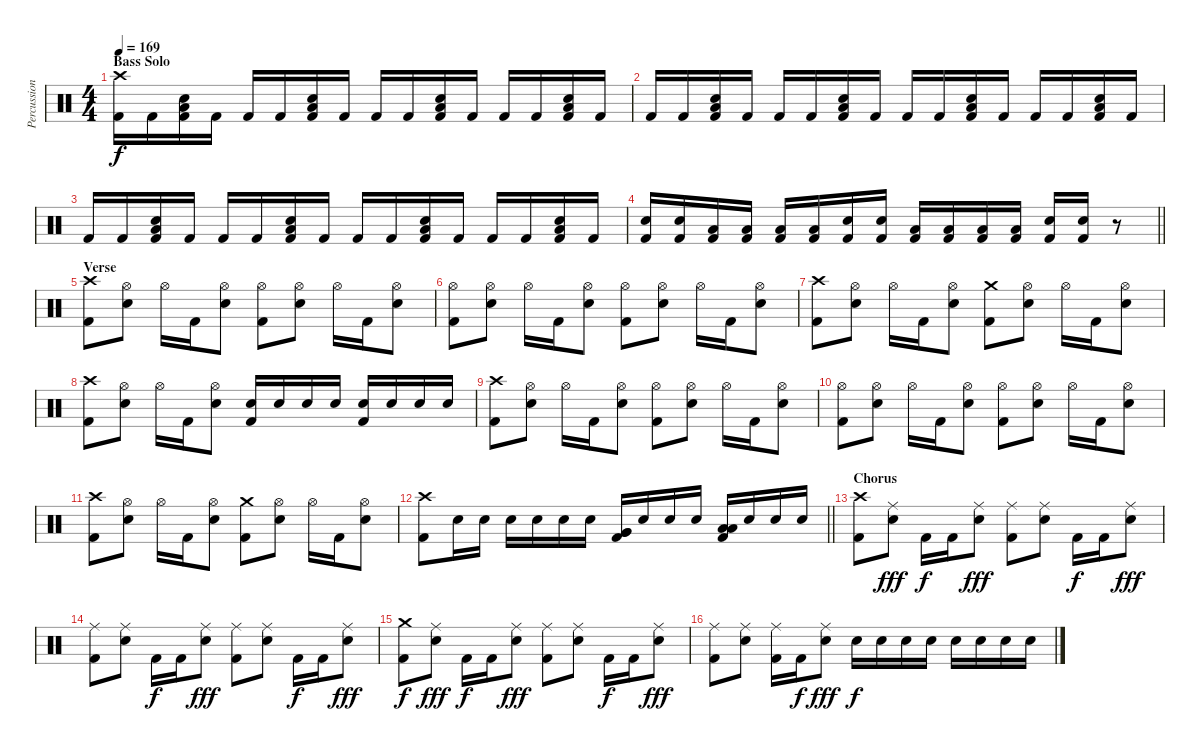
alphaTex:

\track ("Percussion" "Percussion") {instrument percussion}
\staff {score}
\articulation defaults
\ts (4 4)
\section ("" "Bass Solo")
\tempo 169
\clef neutral
\ks c
("Crash high (hit)" "Kick (hit) 2").16{dy f} "Kick (hit) 2".16 ("Low Floor Tom (hit)" "Electric Snare (hit)" "Kick (hit) 2").16 "Kick (hit) 2".16 "Kick (hit) 2".16 "Kick (hit) 2".16 ("Low Floor Tom (hit)" "Electric Snare (hit)" "Kick (hit) 2").16 "Kick (hit) 2".16 "Kick (hit) 2".16 "Kick (hit) 2".16 ("Low Floor Tom (hit)" "Electric Snare (hit)" "Kick (hit) 2").16 "Kick (hit) 2".16 "Kick (hit) 2".16 "Kick (hit) 2".16 ("Low Floor Tom (hit)" "Electric Snare (hit)" "Kick (hit) 2").16 "Kick (hit) 2".16 |
"Kick (hit) 2".16 "Kick (hit) 2".16 ("Low Floor Tom (hit)" "Electric Snare (hit)" "Kick (hit) 2").16 "Kick (hit) 2".16 "Kick (hit) 2".16 "Kick (hit) 2".16 ("Low Floor Tom (hit)" "Electric Snare (hit)" "Kick (hit) 2").16 "Kick (hit) 2".16 "Kick (hit) 2".16 "Kick (hit) 2".16 ("Low Floor Tom (hit)" "Electric Snare (hit)" "Kick (hit) 2").16 "Kick (hit) 2".16 "Kick (hit) 2".16 "Kick (hit) 2".16 ("Low Floor Tom (hit)" "Electric Snare (hit)" "Kick (hit) 2").16 "Kick (hit) 2".16 |
"Kick (hit) 2".16 "Kick (hit) 2".16 ("Low Floor Tom (hit)" "Electric Snare (hit)" "Kick (hit) 2").16 "Kick (hit) 2".16 "Kick (hit) 2".16 "Kick (hit) 2".16 ("Low Floor Tom (hit)" "Electric Snare (hit)" "Kick (hit) 2").16 "Kick (hit) 2".16 "Kick (hit) 2".16 "Kick (hit) 2".16 ("Low Floor Tom (hit)" "Electric Snare (hit)" "Kick (hit) 2").16 "Kick (hit) 2".16 "Kick (hit) 2".16 "Kick (hit) 2".16 ("Low Floor Tom (hit)" "Electric Snare (hit)" "Kick (hit) 2").16 "Kick (hit) 2".16 |
\barLineRight lightlight
("Electric Snare (hit)" "Kick (hit) 2").16 ("Electric Snare (hit)" "Kick (hit) 2").16 ("Low Tom (hit)" "Kick (hit) 2").16 ("Low Tom (hit)" "Kick (hit) 2").16 ("Low Floor Tom (hit)" "Kick (hit) 2").16 ("Low Floor Tom (hit)" "Kick (hit) 2").16 ("Electric Snare (hit)" "Kick (hit) 2").16 ("Electric Snare (hit)" "Kick (hit) 2").16 ("Low Tom (hit)" "Kick (hit) 2").16 ("Low Tom (hit)" "Kick (hit) 2").16 ("Low Floor Tom (hit)" "Kick (hit) 2").16 ("Low Floor Tom (hit)" "Kick (hit) 2").16 ("Electric Snare (hit)" "Kick (hit) 2").16 ("Electric Snare (hit)" "Kick (hit) 2").16 r.8 |
\section ("" "Verse")
("Crash high (hit)" "Kick (hit) 2").8 ("Hi-Hat (open)" "Electric Snare (hit)").8 "Hi-Hat (open)".16 "Kick (hit) 2".16 ("Hi-Hat (open)" "Electric Snare (hit)").8 ("Hi-Hat (open)" "Kick (hit) 2").8 ("Hi-Hat (open)" "Electric Snare (hit)").8 "Hi-Hat (open)".16 "Kick (hit) 2".16 ("Hi-Hat (open)" "Electric Snare (hit)").8 |
("Hi-Hat (open)" "Kick (hit) 2").8 ("Hi-Hat (open)" "Electric Snare (hit)").8 "Hi-Hat (open)".16 "Kick (hit) 2".16 ("Hi-Hat (open)" "Electric Snare (hit)").8 ("Hi-Hat (open)" "Kick (hit) 2").8 ("Hi-Hat (open)" "Electric Snare (hit)").8 "Hi-Hat (open)".16 "Kick (hit) 2".16 ("Hi-Hat (open)" "Electric Snare (hit)").8 |
("Crash high (hit)" "Kick (hit) 2").8 ("Hi-Hat (open)" "Electric Snare (hit)").8 "Hi-Hat (open)".16 "Kick (hit) 2".16 ("Hi-Hat (open)" "Electric Snare (hit)").8 ("Crash medium (hit)" "Kick (hit) 2").8 ("Hi-Hat (open)" "Electric Snare (hit)").8 "Hi-Hat (open)".16 "Kick (hit) 2".16 ("Hi-Hat (open)" "Electric Snare (hit)").8 |
("Crash high (hit)" "Kick (hit) 2").8 ("Hi-Hat (open)" "Electric Snare (hit)").8 "Hi-Hat (open)".16 "Kick (hit) 2".16 ("Hi-Hat (open)" "Electric Snare (hit)").8 ("Electric Snare (hit)" "Kick (hit) 2").16 "Electric Snare (hit)".16 "Electric Snare (hit)".16 "Electric Snare (hit)".16 ("Electric Snare (hit)" "Kick (hit) 2").16 "Electric Snare (hit)".16 "Electric Snare (hit)".16 "Electric Snare (hit)".16 |
("Crash high (hit)" "Kick (hit) 2").8 ("Hi-Hat (open)" "Electric Snare (hit)").8 "Hi-Hat (open)".16 "Kick (hit) 2".16 ("Hi-Hat (open)" "Electric Snare (hit)").8 ("Hi-Hat (open)" "Kick (hit) 2").8 ("Hi-Hat (open)" "Electric Snare (hit)").8 "Hi-Hat (open)".16 "Kick (hit) 2".16 ("Hi-Hat (open)" "Electric Snare (hit)").8 |
("Hi-Hat (open)" "Kick (hit) 2").8 ("Hi-Hat (open)" "Electric Snare (hit)").8 "Hi-Hat (open)".16 "Kick (hit) 2".16 ("Hi-Hat (open)" "Electric Snare (hit)").8 ("Hi-Hat (open)" "Kick (hit) 2").8 ("Hi-Hat (open)" "Electric Snare (hit)").8 "Hi-Hat (open)".16 "Kick (hit) 2".16 ("Hi-Hat (open)" "Electric Snare (hit)").8 |
("Crash high (hit)" "Kick (hit) 2").8 ("Hi-Hat (open)" "Electric Snare (hit)").8 "Hi-Hat (open)".16 "Kick (hit) 2".16 ("Hi-Hat (open)" "Electric Snare (hit)").8 ("Crash medium (hit)" "Kick (hit) 2").8 ("Hi-Hat (open)" "Electric Snare (hit)").8 "Hi-Hat (open)".16 "Kick (hit) 2".16 ("Hi-Hat (open)" "Electric Snare (hit)").8 |
\barLineRight lightlight
("Crash high (hit)" "Kick (hit) 2").8 "Electric Snare (hit)".16 "Electric Snare (hit)".16 "Electric Snare (hit)".16 "Electric Snare (hit)".16 "Electric Snare (hit)".16 "Electric Snare (hit)".16 ("Very Low Tom (hit)" "Very Low Tom (hit)" "Kick (hit) 2").16 "Electric Snare (hit)".16 "Electric Snare (hit)".16 "Electric Snare (hit)".16 ("Low Tom (hit)" "Low Tom (hit)" "Kick (hit) 2").16 "Electric Snare (hit)".16 "Electric Snare (hit)".16 "Electric Snare (hit)".16 |
\section ("" "Chorus")
("Crash high (hit)" "Kick (hit) 2").8 ("Ride (middle)" "Electric Snare (hit)").8{dy fff} "Kick (hit) 2".16{dy f} "Kick (hit) 2".16 ("Ride (middle)" "Electric Snare (hit)").8{dy fff} ("Ride (middle)" "Kick (hit) 2").8 ("Ride (middle)" "Electric Snare (hit)").8 "Kick (hit) 2".16{dy f} "Kick (hit) 2".16 ("Ride (middle)" "Electric Snare (hit)").8{dy fff} |
("Ride (middle)" "Kick (hit) 2").8 ("Ride (middle)" "Electric Snare (hit)").8 "Kick (hit) 2".16{dy f} "Kick (hit) 2".16 ("Ride (middle)" "Electric Snare (hit)").8{dy fff} ("Ride (middle)" "Kick (hit) 2").8 ("Ride (middle)" "Electric Snare (hit)").8 "Kick (hit) 2".16{dy f} "Kick (hit) 2".16 ("Ride (middle)" "Electric Snare (hit)").8{dy fff} |
("Crash medium (hit)" "Kick (hit) 2").8{dy f} ("Ride (middle)" "Electric Snare (hit)").8{dy fff} "Kick (hit) 2".16{dy f} "Kick (hit) 2".16 ("Ride (middle)" "Electric Snare (hit)").8{dy fff} ("Ride (middle)" "Kick (hit) 2").8 ("Ride (middle)" "Electric Snare (hit)").8 "Kick (hit) 2".16{dy f} "Kick (hit) 2".16 ("Ride (middle)" "Electric Snare (hit)").8{dy fff} |
("Ride (middle)" "Kick (hit) 2").8 ("Ride (middle)" "Electric Snare (hit)").8 ("Ride (middle)" "Kick (hit) 2").16 "Kick (hit) 2".16{dy f} ("Ride (middle)" "Electric Snare (hit)").8{dy fff} "Electric Snare (hit)".16{dy f} "Electric Snare (hit)".16 "Electric Snare (hit)".16 "Electric Snare (hit)".16 "Electric Snare (hit)".16 "Electric Snare (hit)".16 "Electric Snare (hit)".16 "Electric Snare (hit)".16
